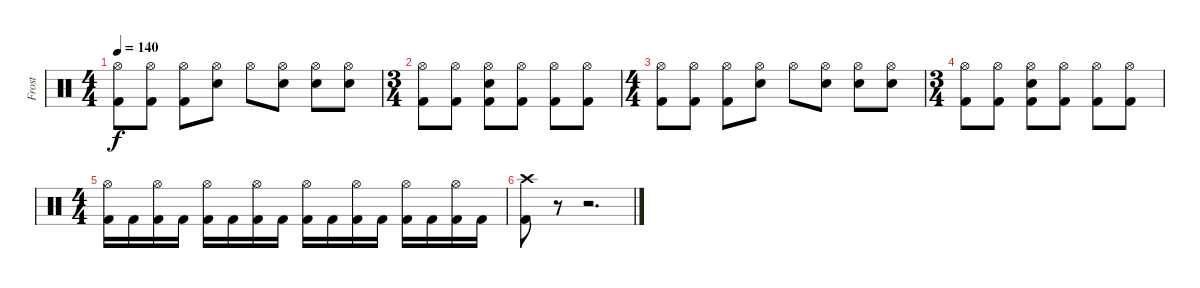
\track ("Frost" "Frost") {instrument percussion}
\staff {score}
\articulation defaults
\ts (4 4)
\tempo 140
\clef neutral
\ks c
("Hi-Hat (open)" "Kick (hit) 2").8{dy f} ("Hi-Hat (open)" "Kick (hit) 2").8 ("Hi-Hat (open)" "Kick (hit) 2").8 ("Hi-Hat (open)" "Snare (hit) 2").8 "Hi-Hat (open)".8 ("Hi-Hat (open)" "Snare (hit) 2").8 ("Hi-Hat (open)" "Snare (hit) 2").8 ("Hi-Hat (open)" "Snare (hit) 2").8 |
\ts (3 4)
("Hi-Hat (open)" "Kick (hit) 2").8 ("Hi-Hat (open)" "Kick (hit) 2").8 ("Hi-Hat (open)" "Kick (hit) 2" "Snare (hit) 2").8 ("Hi-Hat (open)" "Kick (hit) 2").8 ("Hi-Hat (open)" "Kick (hit) 2").8 ("Hi-Hat (open)" "Kick (hit) 2").8 |
\ts (4 4)
("Hi-Hat (open)" "Kick (hit) 2").8 ("Hi-Hat (open)" "Kick (hit) 2").8 ("Hi-Hat (open)" "Kick (hit) 2").8 ("Hi-Hat (open)" "Snare (hit) 2").8 "Hi-Hat (open)".8 ("Hi-Hat (open)" "Snare (hit) 2").8 ("Hi-Hat (open)" "Snare (hit) 2").8 ("Hi-Hat (open)" "Snare (hit) 2").8 |
\ts (3 4)
("Hi-Hat (open)" "Kick (hit) 2").8 ("Hi-Hat (open)" "Kick (hit) 2").8 ("Hi-Hat (open)" "Kick (hit) 2" "Snare (hit) 2").8 ("Hi-Hat (open)" "Kick (hit) 2").8 ("Hi-Hat (open)" "Kick (hit) 2").8 ("Hi-Hat (open)" "Kick (hit) 2").8 |
\ts (4 4)
("Hi-Hat (open)" "Kick (hit) 2").16 "Kick (hit) 2".16 ("Hi-Hat (open)" "Kick (hit) 2").16 "Kick (hit) 2".16 ("Hi-Hat (open)" "Kick (hit) 2").16 "Kick (hit) 2".16 ("Hi-Hat (open)" "Kick (hit) 2").16 "Kick (hit) 2".16 ("Hi-Hat (open)" "Kick (hit) 2").16 "Kick (hit) 2".16 ("Hi-Hat (open)" "Kick (hit) 2").16 "Kick (hit) 2".16 ("Hi-Hat (open)" "Kick (hit) 2").16 "Kick (hit) 2".16 ("Hi-Hat (open)" "Kick (hit) 2").16 "Kick (hit) 2".16 |
("Crash high (hit)" "Kick (hit) 2").8 r.8 r.2{d}
